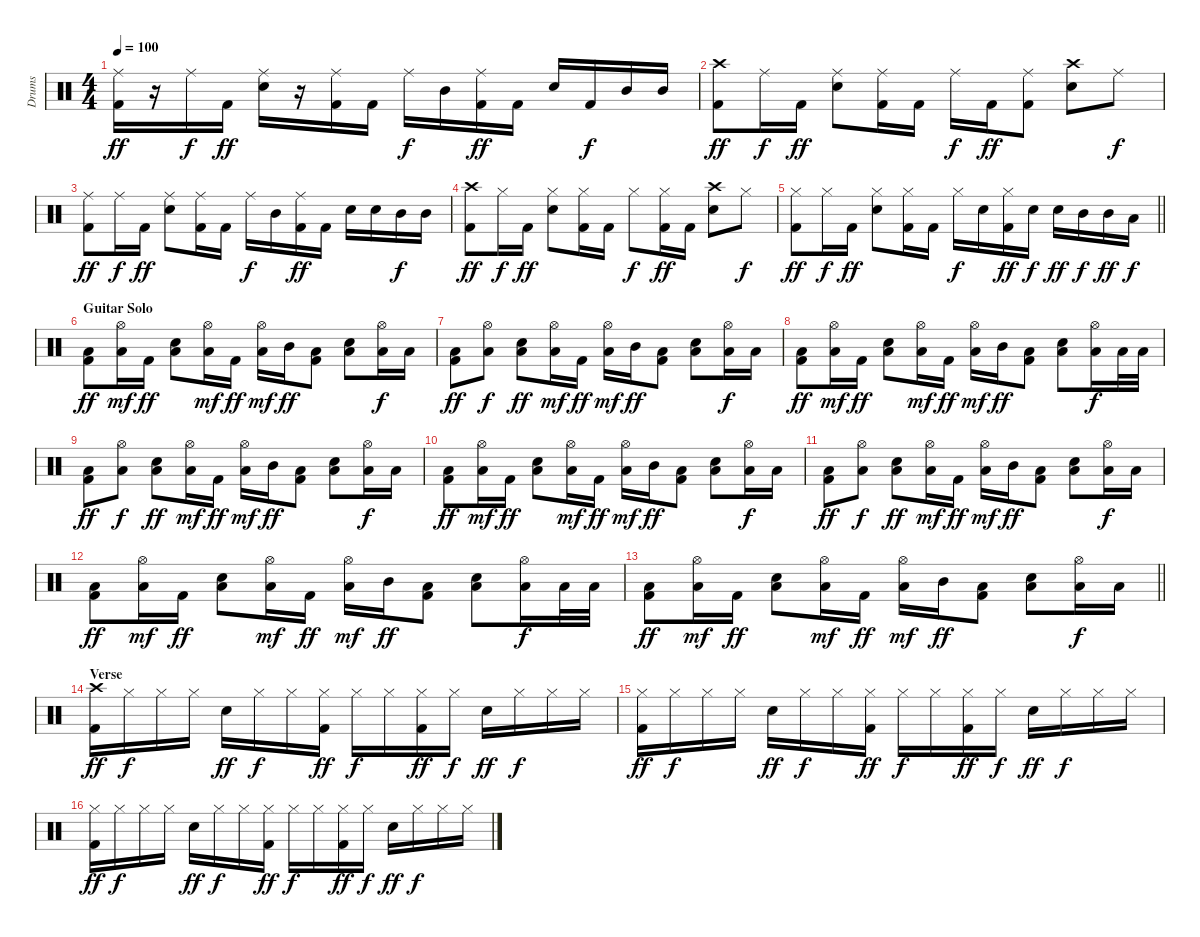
\track ("Drums" "Drums") {instrument percussion}
\staff {score}
\articulation defaults
\ts (4 4)
\tempo 100
\clef neutral
\ks c
("Ride (middle)" "Kick (hit) 2").16{dy ff} r.16 "Ride (middle)".16{dy f} "Kick (hit) 2".16{dy ff} ("Ride (middle)" "Snare (hit) 2").16 r.16 ("Ride (middle)" "Kick (hit) 2").16 "Kick (hit) 2".16 "Ride (middle)".16{dy f} "Mid Tom (hit)".16 ("Ride (middle)" "Kick (hit) 2").16{dy ff} "Kick (hit) 2".16 "Snare (hit) 2".16 "Kick (hit) 2".16{dy f} "Mid Tom (hit)".16 "Mid Tom (hit)".16 |
("Crash high (hit)" "Kick (hit) 2").8{dy ff} "Ride (middle)".16{dy f} "Kick (hit) 2".16{dy ff} ("Ride (middle)" "Snare (hit) 2").8 ("Ride (middle)" "Kick (hit) 2").16 "Kick (hit) 2".16 "Ride (middle)".16{dy f} "Kick (hit) 2".16{dy ff} ("Ride (middle)" "Kick (hit) 2").8 ("Crash high (hit)" "Snare (hit) 2").8 "Ride (middle)".8{dy f} |
("Ride (middle)" "Kick (hit) 2").8{dy ff} "Ride (middle)".16{dy f} "Kick (hit) 2".16{dy ff} ("Ride (middle)" "Snare (hit) 2").8 ("Ride (middle)" "Kick (hit) 2").16 "Kick (hit) 2".16 "Ride (middle)".16{dy f} "Mid Tom (hit)".16 ("Ride (middle)" "Kick (hit) 2").16{dy ff} "Kick (hit) 2".16 "Snare (hit) 2".16 "Snare (hit) 2".16 "Mid Tom (hit)".16{dy f} "Mid Tom (hit)".16 |
("Crash high (hit)" "Kick (hit) 2").8{dy ff} "Hi-Hat (closed)".16{dy f} "Kick (hit) 2".16{dy ff} ("Hi-Hat (closed)" "Snare (hit) 2").8 ("Hi-Hat (closed)" "Kick (hit) 2").16 "Kick (hit) 2".16 "Hi-Hat (closed)".8{dy f} ("Hi-Hat (closed)" "Kick (hit) 2").16{dy ff} "Kick (hit) 2".16 ("Crash high (hit)" "Snare (hit) 2").8 "Hi-Hat (closed)".8{dy f} |
\barLineRight lightlight
("Hi-Hat (closed)" "Kick (hit) 2").8{dy ff} "Hi-Hat (closed)".16{dy f} "Kick (hit) 2".16{dy ff} ("Hi-Hat (closed)" "Snare (hit) 2").8 ("Hi-Hat (closed)" "Kick (hit) 2").16 "Kick (hit) 2".16 "Hi-Hat (closed)".16{dy f} "Snare (hit) 2".16 ("Hi-Hat (closed)" "Kick (hit) 2").16{dy ff} "Snare (hit) 2".16{dy f} "Snare (hit) 2".16{dy ff} "Mid Tom (hit)".16{dy f} "Mid Tom (hit)".16{dy ff} "Low Floor Tom (hit)".16{dy f} |
\section ("" "Guitar Solo")
("Low Tom (hit)" "Kick (hit) 2").8{dy ff} ("Hi-Hat (open)" "Low Tom (hit)").16{dy mf} "Kick (hit) 2".16{dy ff} ("Low Tom (hit)" "Snare (hit) 2").8 ("Hi-Hat (open)" "Low Tom (hit)").16{dy mf} "Kick (hit) 2".16{dy ff} ("Hi-Hat (open)" "Low Tom (hit)").16{dy mf} "Mid Tom (hit)".16{dy ff} ("Low Tom (hit)" "Kick (hit) 2").8 ("Low Tom (hit)" "Snare (hit) 2").8 ("Hi-Hat (open)" "Low Tom (hit)").16{dy f} "Low Tom (hit)".16 |
("Low Tom (hit)" "Kick (hit) 2").8{dy ff} ("Hi-Hat (open)" "Low Tom (hit)").8{dy f} ("Low Tom (hit)" "Snare (hit) 2").8{dy ff} ("Hi-Hat (open)" "Low Tom (hit)").16{dy mf} "Kick (hit) 2".16{dy ff} ("Hi-Hat (open)" "Low Tom (hit)").16{dy mf} "Mid Tom (hit)".16{dy ff} ("Low Tom (hit)" "Kick (hit) 2").8 ("Low Tom (hit)" "Snare (hit) 2").8 ("Hi-Hat (open)" "Low Tom (hit)").16{dy f} "Low Tom (hit)".16 |
("Low Tom (hit)" "Kick (hit) 2").8{dy ff} ("Hi-Hat (open)" "Low Tom (hit)").16{dy mf} "Kick (hit) 2".16{dy ff} ("Low Tom (hit)" "Snare (hit) 2").8 ("Hi-Hat (open)" "Low Tom (hit)").16{dy mf} "Kick (hit) 2".16{dy ff} ("Hi-Hat (open)" "Low Tom (hit)").16{dy mf} "Mid Tom (hit)".16{dy ff} ("Low Tom (hit)" "Kick (hit) 2").8 ("Low Tom (hit)" "Snare (hit) 2").8 ("Hi-Hat (open)" "Low Tom (hit)").16{dy f} "Low Tom (hit)".32 "Low Tom (hit)".32 |
("Low Tom (hit)" "Kick (hit) 2").8{dy ff} ("Hi-Hat (open)" "Low Tom (hit)").8{dy f} ("Low Tom (hit)" "Snare (hit) 2").8{dy ff} ("Hi-Hat (open)" "Low Tom (hit)").16{dy mf} "Kick (hit) 2".16{dy ff} ("Hi-Hat (open)" "Low Tom (hit)").16{dy mf} "Mid Tom (hit)".16{dy ff} ("Low Tom (hit)" "Kick (hit) 2").8 ("Low Tom (hit)" "Snare (hit) 2").8 ("Hi-Hat (open)" "Low Tom (hit)").16{dy f} "Low Tom (hit)".16 |
("Low Tom (hit)" "Kick (hit) 2").8{dy ff} ("Hi-Hat (open)" "Low Tom (hit)").16{dy mf} "Kick (hit) 2".16{dy ff} ("Low Tom (hit)" "Snare (hit) 2").8 ("Hi-Hat (open)" "Low Tom (hit)").16{dy mf} "Kick (hit) 2".16{dy ff} ("Hi-Hat (open)" "Low Tom (hit)").16{dy mf} "Mid Tom (hit)".16{dy ff} ("Low Tom (hit)" "Kick (hit) 2").8 ("Low Tom (hit)" "Snare (hit) 2").8 ("Hi-Hat (open)" "Low Tom (hit)").16{dy f} "Low Tom (hit)".16 |
("Low Tom (hit)" "Kick (hit) 2").8{dy ff} ("Hi-Hat (open)" "Low Tom (hit)").8{dy f} ("Low Tom (hit)" "Snare (hit) 2").8{dy ff} ("Hi-Hat (open)" "Low Tom (hit)").16{dy mf} "Kick (hit) 2".16{dy ff} ("Hi-Hat (open)" "Low Tom (hit)").16{dy mf} "Mid Tom (hit)".16{dy ff} ("Low Tom (hit)" "Kick (hit) 2").8 ("Low Tom (hit)" "Snare (hit) 2").8 ("Hi-Hat (open)" "Low Tom (hit)").16{dy f} "Low Tom (hit)".16 |
("Low Tom (hit)" "Kick (hit) 2").8{dy ff} ("Hi-Hat (open)" "Low Tom (hit)").16{dy mf} "Kick (hit) 2".16{dy ff} ("Low Tom (hit)" "Snare (hit) 2").8 ("Hi-Hat (open)" "Low Tom (hit)").16{dy mf} "Kick (hit) 2".16{dy ff} ("Hi-Hat (open)" "Low Tom (hit)").16{dy mf} "Mid Tom (hit)".16{dy ff} ("Low Tom (hit)" "Kick (hit) 2").8 ("Low Tom (hit)" "Snare (hit) 2").8 ("Hi-Hat (open)" "Low Tom (hit)").16{dy f} "Low Tom (hit)".32 "Low Tom (hit)".32 |
\barLineRight lightlight
("Low Tom (hit)" "Kick (hit) 2").8{dy ff} ("Hi-Hat (open)" "Low Tom (hit)").16{dy mf} "Kick (hit) 2".16{dy ff} ("Low Tom (hit)" "Snare (hit) 2").8 ("Hi-Hat (open)" "Low Tom (hit)").16{dy mf} "Kick (hit) 2".16{dy ff} ("Hi-Hat (open)" "Low Tom (hit)").16{dy mf} "Mid Tom (hit)".16{dy ff} ("Low Tom (hit)" "Kick (hit) 2").8 ("Low Tom (hit)" "Snare (hit) 2").8 ("Hi-Hat (open)" "Low Floor Tom (hit)").16{dy f} "Low Floor Tom (hit)".16 |
\section ("" "Verse")
("Crash high (hit)" "Kick (hit) 2").16{dy ff} "Hi-Hat (closed)".16{dy f} "Hi-Hat (closed)".16 "Hi-Hat (closed)".16 "Snare (hit) 2".16{dy ff} "Hi-Hat (closed)".16{dy f} "Hi-Hat (closed)".16 ("Hi-Hat (closed)" "Kick (hit) 2").16{dy ff} "Hi-Hat (closed)".16{dy f} "Hi-Hat (closed)".16 ("Hi-Hat (closed)" "Kick (hit) 2").16{dy ff} "Hi-Hat (closed)".16{dy f} "Snare (hit) 2".16{dy ff} "Hi-Hat (closed)".16{dy f} "Hi-Hat (closed)".16 "Hi-Hat (closed)".16 |
("Hi-Hat (closed)" "Kick (hit) 2").16{dy ff} "Hi-Hat (closed)".16{dy f} "Hi-Hat (closed)".16 "Hi-Hat (closed)".16 "Snare (hit) 2".16{dy ff} "Hi-Hat (closed)".16{dy f} "Hi-Hat (closed)".16 ("Hi-Hat (closed)" "Kick (hit) 2").16{dy ff} "Hi-Hat (closed)".16{dy f} "Hi-Hat (closed)".16 ("Hi-Hat (closed)" "Kick (hit) 2").16{dy ff} "Hi-Hat (closed)".16{dy f} "Snare (hit) 2".16{dy ff} "Hi-Hat (closed)".16{dy f} "Hi-Hat (closed)".16 "Hi-Hat (closed)".16 |
("Hi-Hat (closed)" "Kick (hit) 2").16{dy ff} "Hi-Hat (closed)".16{dy f} "Hi-Hat (closed)".16 "Hi-Hat (closed)".16 "Snare (hit) 2".16{dy ff} "Hi-Hat (closed)".16{dy f} "Hi-Hat (closed)".16 ("Hi-Hat (closed)" "Kick (hit) 2").16{dy ff} "Hi-Hat (closed)".16{dy f} "Hi-Hat (closed)".16 ("Hi-Hat (closed)" "Kick (hit) 2").16{dy ff} "Hi-Hat (closed)".16{dy f} "Snare (hit) 2".16{dy ff} "Hi-Hat (closed)".16{dy f} "Hi-Hat (closed)".16 "Hi-Hat (closed)".16
